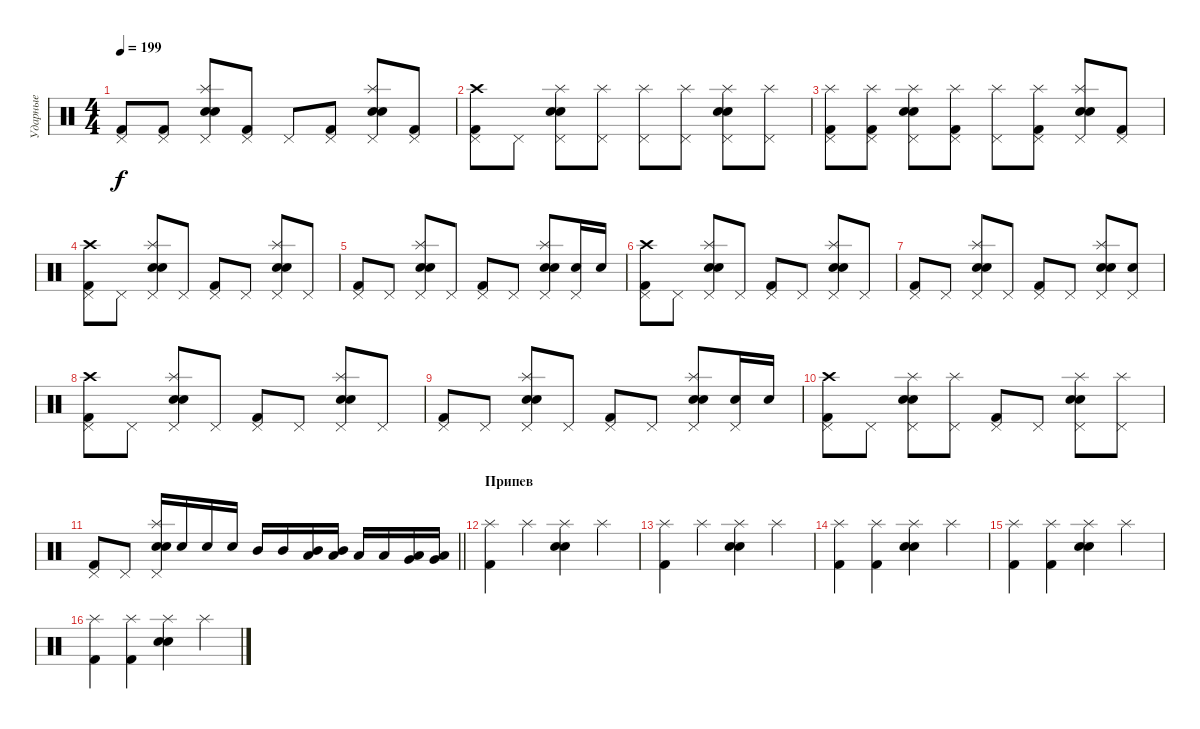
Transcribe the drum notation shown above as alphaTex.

\track ("Ударные" "Ударные") {instrument percussion}
\staff {score}
\articulation defaults
\ts (4 4)
\tempo 199
\clef neutral
\ks c
("Pedal Hi-Hat (hit)" "Kick (hit) 2").8{dy f} ("Pedal Hi-Hat (hit)" "Kick (hit) 2").8 ("Splash (hit)" "Pedal Hi-Hat (hit)" "Electric Snare (hit)" "Snare (hit) 2").8 ("Pedal Hi-Hat (hit)" "Kick (hit) 2").8 "Pedal Hi-Hat (hit)".8 ("Pedal Hi-Hat (hit)" "Kick (hit) 2").8 ("Splash (hit)" "Pedal Hi-Hat (hit)" "Electric Snare (hit)" "Snare (hit) 2").8 ("Pedal Hi-Hat (hit)" "Kick (hit) 2").8 |
("Crash high (hit)" "Pedal Hi-Hat (hit)" "Kick (hit) 2").8 "Pedal Hi-Hat (hit)".8 ("Splash (hit)" "Pedal Hi-Hat (hit)" "Electric Snare (hit)" "Snare (hit) 2").8 ("Splash (hit)" "Pedal Hi-Hat (hit)").8 ("Splash (hit)" "Pedal Hi-Hat (hit)").8 ("Splash (hit)" "Pedal Hi-Hat (hit)").8 ("Splash (hit)" "Pedal Hi-Hat (hit)" "Electric Snare (hit)" "Snare (hit) 2").8 ("Splash (hit)" "Pedal Hi-Hat (hit)").8 |
("Splash (hit)" "Pedal Hi-Hat (hit)" "Kick (hit) 2").8 ("Splash (hit)" "Pedal Hi-Hat (hit)" "Kick (hit) 2").8 ("Splash (hit)" "Pedal Hi-Hat (hit)" "Electric Snare (hit)" "Snare (hit) 2").8 ("Splash (hit)" "Pedal Hi-Hat (hit)" "Kick (hit) 2").8 ("Splash (hit)" "Pedal Hi-Hat (hit)").8 ("Splash (hit)" "Pedal Hi-Hat (hit)" "Kick (hit) 2").8 ("Splash (hit)" "Pedal Hi-Hat (hit)" "Electric Snare (hit)" "Snare (hit) 2").8 ("Pedal Hi-Hat (hit)" "Kick (hit) 2").8 |
("Crash high (hit)" "Pedal Hi-Hat (hit)" "Kick (hit) 2").8 "Pedal Hi-Hat (hit)".8 ("Splash (hit)" "Pedal Hi-Hat (hit)" "Electric Snare (hit)" "Snare (hit) 2").8 "Pedal Hi-Hat (hit)".8 ("Pedal Hi-Hat (hit)" "Kick (hit) 2").8 "Pedal Hi-Hat (hit)".8 ("Splash (hit)" "Pedal Hi-Hat (hit)" "Electric Snare (hit)" "Snare (hit) 2").8 "Pedal Hi-Hat (hit)".8 |
("Pedal Hi-Hat (hit)" "Kick (hit) 2").8 "Pedal Hi-Hat (hit)".8 ("Splash (hit)" "Pedal Hi-Hat (hit)" "Electric Snare (hit)" "Snare (hit) 2").8 "Pedal Hi-Hat (hit)".8 ("Pedal Hi-Hat (hit)" "Kick (hit) 2").8 "Pedal Hi-Hat (hit)".8 ("Splash (hit)" "Pedal Hi-Hat (hit)" "Electric Snare (hit)" "Snare (hit) 2").8 ("Pedal Hi-Hat (hit)" "Electric Snare (hit)").16 "Electric Snare (hit)".16 |
("Crash high (hit)" "Pedal Hi-Hat (hit)" "Kick (hit) 2").8 "Pedal Hi-Hat (hit)".8 ("Splash (hit)" "Pedal Hi-Hat (hit)" "Electric Snare (hit)" "Snare (hit) 2").8 "Pedal Hi-Hat (hit)".8 ("Pedal Hi-Hat (hit)" "Kick (hit) 2").8 "Pedal Hi-Hat (hit)".8 ("Splash (hit)" "Pedal Hi-Hat (hit)" "Electric Snare (hit)" "Snare (hit) 2").8 "Pedal Hi-Hat (hit)".8 |
("Pedal Hi-Hat (hit)" "Kick (hit) 2").8 "Pedal Hi-Hat (hit)".8 ("Splash (hit)" "Pedal Hi-Hat (hit)" "Electric Snare (hit)" "Snare (hit) 2").8 "Pedal Hi-Hat (hit)".8 ("Pedal Hi-Hat (hit)" "Kick (hit) 2").8 "Pedal Hi-Hat (hit)".8 ("Splash (hit)" "Pedal Hi-Hat (hit)" "Electric Snare (hit)" "Snare (hit) 2").8 ("Pedal Hi-Hat (hit)" "Electric Snare (hit)").8 |
("Crash high (hit)" "Pedal Hi-Hat (hit)" "Kick (hit) 2").8 "Pedal Hi-Hat (hit)".8 ("Splash (hit)" "Pedal Hi-Hat (hit)" "Electric Snare (hit)" "Snare (hit) 2").8 "Pedal Hi-Hat (hit)".8 ("Pedal Hi-Hat (hit)" "Kick (hit) 2").8 "Pedal Hi-Hat (hit)".8 ("Splash (hit)" "Pedal Hi-Hat (hit)" "Electric Snare (hit)" "Snare (hit) 2").8 "Pedal Hi-Hat (hit)".8 |
("Pedal Hi-Hat (hit)" "Kick (hit) 2").8 "Pedal Hi-Hat (hit)".8 ("Splash (hit)" "Pedal Hi-Hat (hit)" "Electric Snare (hit)" "Snare (hit) 2").8 "Pedal Hi-Hat (hit)".8 ("Pedal Hi-Hat (hit)" "Kick (hit) 2").8 "Pedal Hi-Hat (hit)".8 ("Splash (hit)" "Pedal Hi-Hat (hit)" "Electric Snare (hit)" "Snare (hit) 2").8 ("Pedal Hi-Hat (hit)" "Electric Snare (hit)").16 "Electric Snare (hit)".16 |
("Crash high (hit)" "Pedal Hi-Hat (hit)" "Kick (hit) 2").8 "Pedal Hi-Hat (hit)".8 ("Splash (hit)" "Pedal Hi-Hat (hit)" "Electric Snare (hit)" "Snare (hit) 2").8 ("Splash (hit)" "Pedal Hi-Hat (hit)").8 ("Pedal Hi-Hat (hit)" "Kick (hit) 2").8 "Pedal Hi-Hat (hit)".8 ("Splash (hit)" "Pedal Hi-Hat (hit)" "Electric Snare (hit)" "Snare (hit) 2").8 ("Splash (hit)" "Pedal Hi-Hat (hit)").8 |
\barLineRight lightlight
("Pedal Hi-Hat (hit)" "Kick (hit) 2").8 "Pedal Hi-Hat (hit)".8 ("Splash (hit)" "Pedal Hi-Hat (hit)" "Electric Snare (hit)" "Snare (hit) 2").16 "Electric Snare (hit)".16 "Electric Snare (hit)".16 "Electric Snare (hit)".16 "Mid Tom (hit)".16 "Mid Tom (hit)".16 ("Mid Tom (hit)" "Low Tom (hit)").16 ("Mid Tom (hit)" "Low Tom (hit)").16 "Low Tom (hit)".16 "Low Tom (hit)".16 ("Low Tom (hit)" "Very Low Tom (hit)").16 ("Low Tom (hit)" "Very Low Tom (hit)").16 |
\section ("" "Припев")
("Splash (hit)" "Kick (hit) 2").4 "Splash (hit)".4 ("Splash (hit)" "Electric Snare (hit)" "Snare (hit) 2").4 "Splash (hit)".4 |
("Splash (hit)" "Kick (hit) 2").4 "Splash (hit)".4 ("Splash (hit)" "Electric Snare (hit)" "Snare (hit) 2").4 "Splash (hit)".4 |
("Splash (hit)" "Kick (hit) 2").4 ("Splash (hit)" "Kick (hit) 2").4 ("Splash (hit)" "Electric Snare (hit)" "Snare (hit) 2").4 "Splash (hit)".4 |
("Splash (hit)" "Kick (hit) 2").4 ("Splash (hit)" "Kick (hit) 2").4 ("Splash (hit)" "Electric Snare (hit)" "Snare (hit) 2").4 "Splash (hit)".4 |
("Splash (hit)" "Kick (hit) 2").4 ("Splash (hit)" "Kick (hit) 2").4 ("Splash (hit)" "Electric Snare (hit)" "Snare (hit) 2").4 "Splash (hit)".4
